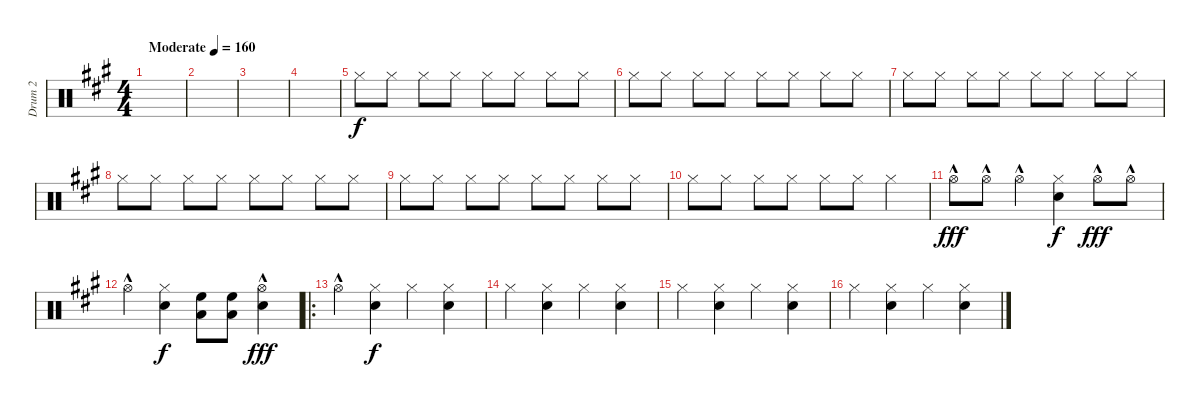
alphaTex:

\track ("Drum 2" "Drum 2") {instrument percussion}
\staff {score}
\articulation defaults
\ts (4 4)
\tempo (160 "Moderate")
\clef neutral
\ks a
|
|
|
|
"Hi-Hat (closed)".8 "Hi-Hat (closed)".8 "Hi-Hat (closed)".8 "Hi-Hat (closed)".8 "Hi-Hat (closed)".8 "Hi-Hat (closed)".8 "Hi-Hat (closed)".8 "Hi-Hat (closed)".8 |
"Hi-Hat (closed)".8 "Hi-Hat (closed)".8 "Hi-Hat (closed)".8 "Hi-Hat (closed)".8 "Hi-Hat (closed)".8 "Hi-Hat (closed)".8 "Hi-Hat (closed)".8 "Hi-Hat (closed)".8 |
"Hi-Hat (closed)".8 "Hi-Hat (closed)".8 "Hi-Hat (closed)".8 "Hi-Hat (closed)".8 "Hi-Hat (closed)".8 "Hi-Hat (closed)".8 "Hi-Hat (closed)".8 "Hi-Hat (closed)".8 |
"Hi-Hat (closed)".8 "Hi-Hat (closed)".8 "Hi-Hat (closed)".8 "Hi-Hat (closed)".8 "Hi-Hat (closed)".8 "Hi-Hat (closed)".8 "Hi-Hat (closed)".8 "Hi-Hat (closed)".8 |
"Hi-Hat (closed)".8 "Hi-Hat (closed)".8 "Hi-Hat (closed)".8 "Hi-Hat (closed)".8 "Hi-Hat (closed)".8 "Hi-Hat (closed)".8 "Hi-Hat (closed)".8 "Hi-Hat (closed)".8 |
"Hi-Hat (closed)".8 "Hi-Hat (closed)".8 "Hi-Hat (closed)".8 "Hi-Hat (closed)".8 "Hi-Hat (closed)".8 "Hi-Hat (closed)".8 "Hi-Hat (closed)".4 |
"Hi-Hat (open)"{hac}.8{dy fff} "Hi-Hat (open)"{hac}.8 "Hi-Hat (open)"{hac}.4 ("Hi-Hat (closed)" "Snare (hit) 2").4{dy f} "Hi-Hat (open)"{hac}.8{dy fff} "Hi-Hat (open)"{hac}.8 |
"Hi-Hat (open)"{hac}.4 ("Hi-Hat (closed)" "Snare (hit) 2").4{dy f} ("High Floor Tom (hit)" "Low Tom (hit)").8 ("High Floor Tom (hit)" "Low Tom (hit)").8 ("Hi-Hat (open)"{hac} "Snare (hit) 2").4{dy fff} |
\ro "Hi-Hat (open)"{hac}.4
("Hi-Hat (closed)" "Snare (hit) 2").4{dy f} "Hi-Hat (closed)".4 ("Hi-Hat (closed)" "Snare (hit) 2").4 |
"Hi-Hat (closed)".4 ("Hi-Hat (closed)" "Snare (hit) 2").4 "Hi-Hat (closed)".4 ("Hi-Hat (closed)" "Snare (hit) 2").4 |
"Hi-Hat (closed)".4 ("Hi-Hat (closed)" "Snare (hit) 2").4 "Hi-Hat (closed)".4 ("Hi-Hat (closed)" "Snare (hit) 2").4 |
"Hi-Hat (closed)".4 ("Hi-Hat (closed)" "Snare (hit) 2").4 "Hi-Hat (closed)".4 ("Hi-Hat (closed)" "Snare (hit) 2").4
